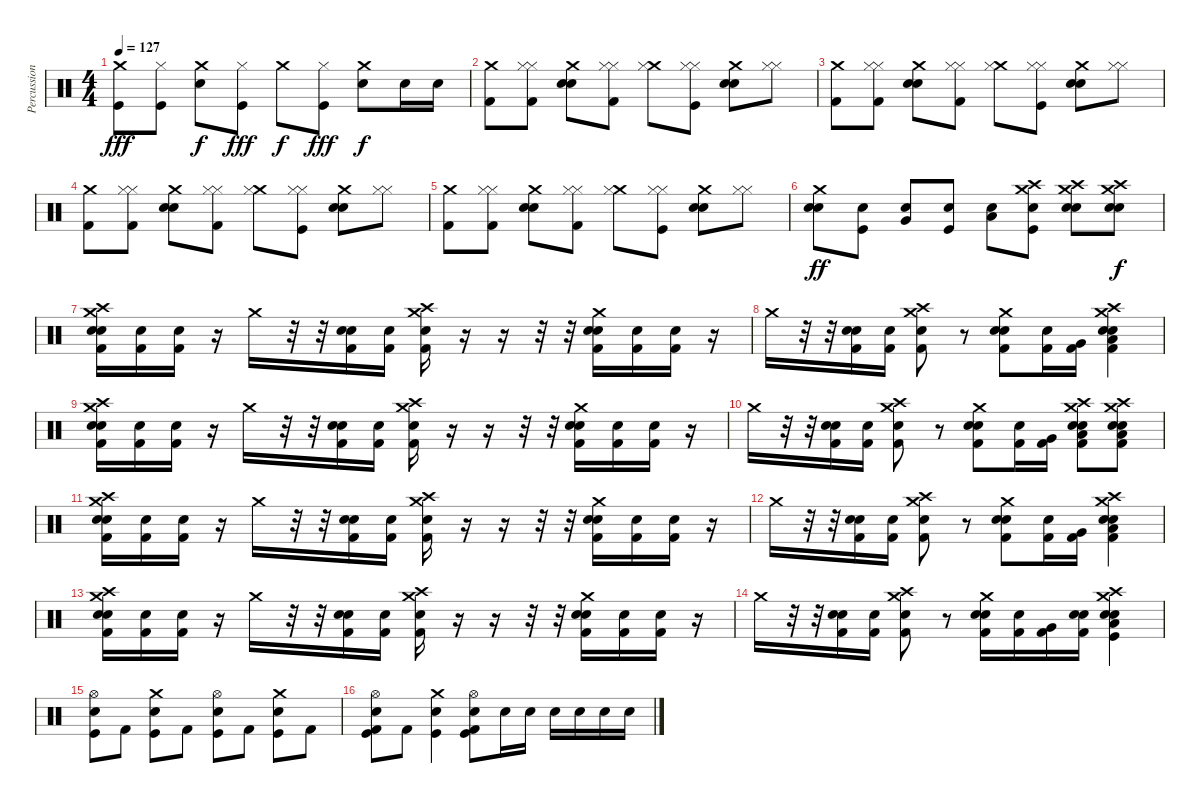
\track ("Percussion" "Percussion") {instrument percussion}
\staff {score}
\articulation defaults
\ts (4 4)
\tempo 127
\clef neutral
\ks c
("Crash medium (hit)" "Kick (hit)").8{dy fff} ("Hi-Hat (closed)" "Kick (hit)").8 ("Crash medium (hit)" "Snare (hit) 2").8{dy f} ("Hi-Hat (closed)" "Kick (hit)").8{dy fff} "Crash medium (hit)".8{dy f} ("Hi-Hat (closed)" "Kick (hit)").8{dy fff} ("Crash medium (hit)" "Snare (hit) 2").8{dy f} "Snare (hit) 2".16 "Snare (hit) 2".16 |
("Crash medium (hit)" "Kick (hit) 2").8 ("Hi-Hat (closed)" "Hi-Hat (closed)" "Kick (hit) 2").8 ("Crash medium (hit)" "Snare (hit) 2" "Electric Snare (hit)").8 ("Hi-Hat (closed)" "Hi-Hat (closed)" "Kick (hit) 2").8 ("Crash medium (hit)" "Hi-Hat (closed)").8 ("Hi-Hat (closed)" "Hi-Hat (closed)" "Kick (hit)").8 ("Crash medium (hit)" "Snare (hit) 2" "Electric Snare (hit)").8 ("Hi-Hat (closed)" "Hi-Hat (closed)").8 |
("Crash medium (hit)" "Kick (hit) 2").8 ("Hi-Hat (closed)" "Hi-Hat (closed)" "Kick (hit) 2").8 ("Crash medium (hit)" "Snare (hit) 2" "Electric Snare (hit)").8 ("Hi-Hat (closed)" "Hi-Hat (closed)" "Kick (hit) 2").8 ("Crash medium (hit)" "Hi-Hat (closed)").8 ("Hi-Hat (closed)" "Hi-Hat (closed)" "Kick (hit)").8 ("Crash medium (hit)" "Snare (hit) 2" "Electric Snare (hit)").8 ("Hi-Hat (closed)" "Hi-Hat (closed)").8 |
("Crash medium (hit)" "Kick (hit) 2").8 ("Hi-Hat (closed)" "Hi-Hat (closed)" "Kick (hit) 2").8 ("Crash medium (hit)" "Snare (hit) 2" "Electric Snare (hit)").8 ("Hi-Hat (closed)" "Hi-Hat (closed)" "Kick (hit) 2").8 ("Crash medium (hit)" "Hi-Hat (closed)").8 ("Hi-Hat (closed)" "Hi-Hat (closed)" "Kick (hit)").8 ("Crash medium (hit)" "Snare (hit) 2" "Electric Snare (hit)").8 ("Hi-Hat (closed)" "Hi-Hat (closed)").8 |
("Crash medium (hit)" "Kick (hit) 2").8 ("Hi-Hat (closed)" "Hi-Hat (closed)" "Kick (hit) 2").8 ("Crash medium (hit)" "Snare (hit) 2" "Electric Snare (hit)").8 ("Hi-Hat (closed)" "Hi-Hat (closed)" "Kick (hit) 2").8 ("Crash medium (hit)" "Hi-Hat (closed)").8 ("Hi-Hat (closed)" "Hi-Hat (closed)" "Kick (hit)").8 ("Crash medium (hit)" "Snare (hit) 2" "Electric Snare (hit)").8 ("Hi-Hat (closed)" "Hi-Hat (closed)").8 |
("Crash medium (hit)" "Snare (hit) 2" "Electric Snare (hit)").8{dy ff} ("Snare (hit) 2" "Kick (hit)").8 ("Snare (hit) 2" "Very Low Tom (hit)").8 ("Snare (hit) 2" "Kick (hit)").8 ("Snare (hit) 2" "Low Floor Tom (hit)").8 ("Crash medium (hit)" "Crash high (hit)" "Snare (hit) 2" "Kick (hit)").8 ("Crash medium (hit)" "Crash high (hit)" "Snare (hit) 2" "Electric Snare (hit)").8 ("Crash medium (hit)" "Crash high (hit)" "Snare (hit) 2" "Electric Snare (hit)").8{dy f} |
("Crash medium (hit)" "Crash high (hit)" "Electric Snare (hit)" "Snare (hit) 2" "Kick (hit) 2").16 ("Snare (hit) 2" "Kick (hit) 2").16 ("Snare (hit) 2" "Kick (hit) 2").16 r.16 "Crash medium (hit)".16 r.32 r.32 ("Electric Snare (hit)" "Snare (hit) 2" "Kick (hit) 2").16 ("Snare (hit) 2" "Kick (hit) 2").16 ("Crash medium (hit)" "Crash high (hit)" "Snare (hit) 2" "Kick (hit) 2").16 r.16 r.16 r.32 r.32 ("Crash medium (hit)" "Electric Snare (hit)" "Snare (hit) 2" "Kick (hit) 2").16 ("Snare (hit) 2" "Kick (hit) 2").16 ("Snare (hit) 2" "Kick (hit) 2").16 r.16 |
"Crash medium (hit)".16 r.32 r.32 ("Electric Snare (hit)" "Snare (hit) 2" "Kick (hit) 2").16 ("Snare (hit) 2" "Kick (hit) 2").16 ("Crash medium (hit)" "Crash high (hit)" "Snare (hit) 2" "Kick (hit) 2").8 r.8 ("Crash medium (hit)" "Electric Snare (hit)" "Snare (hit) 2" "Kick (hit) 2").8 ("Electric Snare (hit)" "Kick (hit) 2").16 ("Very Low Tom (hit)" "Kick (hit) 2").16 ("Crash medium (hit)" "Crash high (hit)" "Low Floor Tom (hit)" "Electric Snare (hit)" "Snare (hit) 2" "Kick (hit) 2").4 |
("Crash medium (hit)" "Crash high (hit)" "Electric Snare (hit)" "Snare (hit) 2" "Kick (hit) 2").16 ("Snare (hit) 2" "Kick (hit) 2").16 ("Snare (hit) 2" "Kick (hit) 2").16 r.16 "Crash medium (hit)".16 r.32 r.32 ("Electric Snare (hit)" "Snare (hit) 2" "Kick (hit) 2").16 ("Snare (hit) 2" "Kick (hit) 2").16 ("Crash medium (hit)" "Crash high (hit)" "Snare (hit) 2" "Kick (hit) 2").16 r.16 r.16 r.32 r.32 ("Crash medium (hit)" "Electric Snare (hit)" "Snare (hit) 2" "Kick (hit) 2").16 ("Snare (hit) 2" "Kick (hit) 2").16 ("Snare (hit) 2" "Kick (hit) 2").16 r.16 |
"Crash medium (hit)".16 r.32 r.32 ("Electric Snare (hit)" "Snare (hit) 2" "Kick (hit) 2").16 ("Snare (hit) 2" "Kick (hit) 2").16 ("Crash medium (hit)" "Crash high (hit)" "Snare (hit) 2" "Kick (hit) 2").8 r.8 ("Crash medium (hit)" "Electric Snare (hit)" "Snare (hit) 2" "Kick (hit) 2").8 ("Electric Snare (hit)" "Kick (hit) 2").16 ("Very Low Tom (hit)" "Kick (hit) 2").16 ("Crash medium (hit)" "Crash high (hit)" "Low Floor Tom (hit)" "Electric Snare (hit)" "Snare (hit) 2" "Kick (hit) 2").8 ("Crash medium (hit)" "Crash high (hit)" "Low Floor Tom (hit)" "Electric Snare (hit)" "Snare (hit) 2" "Kick (hit) 2").8 |
("Crash medium (hit)" "Crash high (hit)" "Electric Snare (hit)" "Snare (hit) 2" "Kick (hit) 2").16 ("Snare (hit) 2" "Kick (hit) 2").16 ("Snare (hit) 2" "Kick (hit) 2").16 r.16 "Crash medium (hit)".16 r.32 r.32 ("Electric Snare (hit)" "Snare (hit) 2" "Kick (hit) 2").16 ("Snare (hit) 2" "Kick (hit) 2").16 ("Crash medium (hit)" "Crash high (hit)" "Snare (hit) 2" "Kick (hit) 2").16 r.16 r.16 r.32 r.32 ("Crash medium (hit)" "Electric Snare (hit)" "Snare (hit) 2" "Kick (hit) 2").16 ("Snare (hit) 2" "Kick (hit) 2").16 ("Snare (hit) 2" "Kick (hit) 2").16 r.16 |
"Crash medium (hit)".16 r.32 r.32 ("Electric Snare (hit)" "Snare (hit) 2" "Kick (hit) 2").16 ("Snare (hit) 2" "Kick (hit) 2").16 ("Crash medium (hit)" "Crash high (hit)" "Snare (hit) 2" "Kick (hit) 2").8 r.8 ("Crash medium (hit)" "Electric Snare (hit)" "Snare (hit) 2" "Kick (hit) 2").8 ("Electric Snare (hit)" "Kick (hit) 2").16 ("Very Low Tom (hit)" "Kick (hit) 2").16 ("Crash medium (hit)" "Crash high (hit)" "Low Floor Tom (hit)" "Electric Snare (hit)" "Snare (hit) 2" "Kick (hit) 2").4 |
("Crash medium (hit)" "Crash high (hit)" "Electric Snare (hit)" "Snare (hit) 2" "Kick (hit) 2").16 ("Snare (hit) 2" "Kick (hit) 2").16 ("Snare (hit) 2" "Kick (hit) 2").16 r.16 "Crash medium (hit)".16 r.32 r.32 ("Electric Snare (hit)" "Snare (hit) 2" "Kick (hit) 2").16 ("Snare (hit) 2" "Kick (hit) 2").16 ("Crash medium (hit)" "Crash high (hit)" "Snare (hit) 2" "Kick (hit) 2").16 r.16 r.16 r.32 r.32 ("Crash medium (hit)" "Electric Snare (hit)" "Snare (hit) 2" "Kick (hit) 2").16 ("Snare (hit) 2" "Kick (hit) 2").16 ("Snare (hit) 2" "Kick (hit) 2").16 r.16 |
"Crash medium (hit)".16 r.32 r.32 ("Electric Snare (hit)" "Snare (hit) 2" "Kick (hit) 2").16 ("Snare (hit) 2" "Kick (hit) 2").16 ("Crash medium (hit)" "Crash high (hit)" "Snare (hit) 2" "Kick (hit) 2").8 r.8 ("Crash medium (hit)" "Electric Snare (hit)" "Snare (hit) 2" "Kick (hit) 2").16 ("Electric Snare (hit)" "Kick (hit) 2").16 ("Very Low Tom (hit)" "Kick (hit) 2").16 ("Electric Snare (hit)" "Snare (hit) 2" "Kick (hit) 2").16 ("Crash medium (hit)" "Crash high (hit)" "Low Floor Tom (hit)" "Electric Snare (hit)" "Snare (hit) 2" "Kick (hit)").4 |
("Electric Snare (hit)" "Hi-Hat (open)" "Kick (hit)").8 "Kick (hit) 2".8 ("Electric Snare (hit)" "Crash medium (hit)" "Kick (hit)").8 "Kick (hit) 2".8 ("Electric Snare (hit)" "Hi-Hat (open)" "Kick (hit)").8 "Kick (hit) 2".8 ("Electric Snare (hit)" "Crash medium (hit)" "Kick (hit)").8 "Kick (hit) 2".8 |
("Kick (hit) 2" "Electric Snare (hit)" "Hi-Hat (open)" "Kick (hit)").8 "Kick (hit) 2".8 ("Electric Snare (hit)" "Crash medium (hit)" "Kick (hit)").4 ("Kick (hit) 2" "Electric Snare (hit)" "Hi-Hat (open)" "Kick (hit)").8 "Electric Snare (hit)".16 "Electric Snare (hit)".16 "Electric Snare (hit)".16 "Electric Snare (hit)".16 "Electric Snare (hit)".16 "Electric Snare (hit)".16
